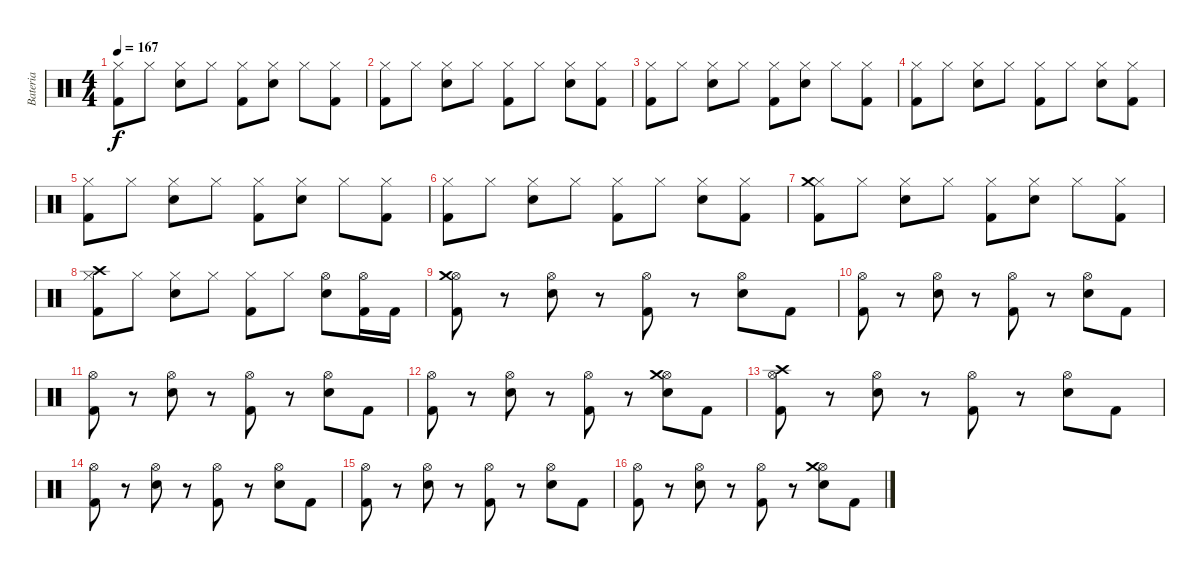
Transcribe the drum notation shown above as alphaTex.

\track ("Bateria" "Bateria") {instrument percussion}
\staff {score}
\articulation defaults
\ts (4 4)
\tempo 167
\clef neutral
\ks c
("Kick (hit) 2" "Hi-Hat (closed)").8{dy f} "Hi-Hat (closed)".8 ("Snare (hit) 2" "Hi-Hat (closed)").8 "Hi-Hat (closed)".8 ("Kick (hit) 2" "Hi-Hat (closed)").8 ("Snare (hit) 2" "Hi-Hat (closed)").8 "Hi-Hat (closed)".8 ("Kick (hit) 2" "Hi-Hat (closed)").8 |
("Kick (hit) 2" "Hi-Hat (closed)").8 "Hi-Hat (closed)".8 ("Snare (hit) 2" "Hi-Hat (closed)").8 "Hi-Hat (closed)".8 ("Kick (hit) 2" "Hi-Hat (closed)").8 "Hi-Hat (closed)".8 ("Snare (hit) 2" "Hi-Hat (closed)").8 ("Kick (hit) 2" "Hi-Hat (closed)").8 |
("Kick (hit) 2" "Hi-Hat (closed)").8 "Hi-Hat (closed)".8 ("Snare (hit) 2" "Hi-Hat (closed)").8 "Hi-Hat (closed)".8 ("Kick (hit) 2" "Hi-Hat (closed)").8 ("Snare (hit) 2" "Hi-Hat (closed)").8 "Hi-Hat (closed)".8 ("Kick (hit) 2" "Hi-Hat (closed)").8 |
("Kick (hit) 2" "Hi-Hat (closed)").8 "Hi-Hat (closed)".8 ("Snare (hit) 2" "Hi-Hat (closed)").8 "Hi-Hat (closed)".8 ("Kick (hit) 2" "Hi-Hat (closed)").8 "Hi-Hat (closed)".8 ("Snare (hit) 2" "Hi-Hat (closed)").8 ("Kick (hit) 2" "Hi-Hat (closed)").8 |
("Kick (hit) 2" "Hi-Hat (closed)").8 "Hi-Hat (closed)".8 ("Snare (hit) 2" "Hi-Hat (closed)").8 "Hi-Hat (closed)".8 ("Kick (hit) 2" "Hi-Hat (closed)").8 ("Snare (hit) 2" "Hi-Hat (closed)").8 "Hi-Hat (closed)".8 ("Kick (hit) 2" "Hi-Hat (closed)").8 |
("Kick (hit) 2" "Hi-Hat (closed)").8 "Hi-Hat (closed)".8 ("Snare (hit) 2" "Hi-Hat (closed)").8 "Hi-Hat (closed)".8 ("Kick (hit) 2" "Hi-Hat (closed)").8 "Hi-Hat (closed)".8 ("Snare (hit) 2" "Hi-Hat (closed)").8 ("Kick (hit) 2" "Hi-Hat (closed)").8 |
("Kick (hit) 2" "Hi-Hat (closed)" "Crash medium (hit)").8 "Hi-Hat (closed)".8 ("Snare (hit) 2" "Hi-Hat (closed)").8 "Hi-Hat (closed)".8 ("Kick (hit) 2" "Hi-Hat (closed)").8 ("Snare (hit) 2" "Hi-Hat (closed)").8 "Hi-Hat (closed)".8 ("Kick (hit) 2" "Hi-Hat (closed)").8 |
("Kick (hit) 2" "Hi-Hat (closed)" "Crash high (hit)").8 "Hi-Hat (closed)".8 ("Snare (hit) 2" "Hi-Hat (closed)").8 "Hi-Hat (closed)".8 ("Kick (hit) 2" "Hi-Hat (closed)").8 "Hi-Hat (closed)".8 ("Snare (hit) 2" "Hi-Hat (open)").8 ("Kick (hit) 2" "Hi-Hat (open)").16 "Kick (hit) 2".16 |
("Kick (hit) 2" "Hi-Hat (open)" "Crash medium (hit)").8 r.8 ("Snare (hit) 2" "Hi-Hat (open)").8 r.8 ("Kick (hit) 2" "Hi-Hat (open)").8 r.8 ("Snare (hit) 2" "Hi-Hat (open)").8 "Kick (hit) 2".8 |
("Kick (hit) 2" "Hi-Hat (open)").8 r.8 ("Snare (hit) 2" "Hi-Hat (open)").8 r.8 ("Kick (hit) 2" "Hi-Hat (open)").8 r.8 ("Snare (hit) 2" "Hi-Hat (open)").8 "Kick (hit) 2".8 |
("Kick (hit) 2" "Hi-Hat (open)").8 r.8 ("Snare (hit) 2" "Hi-Hat (open)").8 r.8 ("Kick (hit) 2" "Hi-Hat (open)").8 r.8 ("Snare (hit) 2" "Hi-Hat (open)").8 "Kick (hit) 2".8 |
("Kick (hit) 2" "Hi-Hat (open)").8 r.8 ("Snare (hit) 2" "Hi-Hat (open)").8 r.8 ("Kick (hit) 2" "Hi-Hat (open)").8 r.8 ("Snare (hit) 2" "Hi-Hat (open)" "Crash medium (hit)").8 "Kick (hit) 2".8 |
("Kick (hit) 2" "Hi-Hat (open)" "Crash high (hit)").8 r.8 ("Snare (hit) 2" "Hi-Hat (open)").8 r.8 ("Kick (hit) 2" "Hi-Hat (open)").8 r.8 ("Snare (hit) 2" "Hi-Hat (open)").8 "Kick (hit) 2".8 |
("Kick (hit) 2" "Hi-Hat (open)").8 r.8 ("Snare (hit) 2" "Hi-Hat (open)").8 r.8 ("Kick (hit) 2" "Hi-Hat (open)").8 r.8 ("Snare (hit) 2" "Hi-Hat (open)").8 "Kick (hit) 2".8 |
("Kick (hit) 2" "Hi-Hat (open)").8 r.8 ("Snare (hit) 2" "Hi-Hat (open)").8 r.8 ("Kick (hit) 2" "Hi-Hat (open)").8 r.8 ("Snare (hit) 2" "Hi-Hat (open)").8 "Kick (hit) 2".8 |
("Kick (hit) 2" "Hi-Hat (open)").8 r.8 ("Snare (hit) 2" "Hi-Hat (open)").8 r.8 ("Kick (hit) 2" "Hi-Hat (open)").8 r.8 ("Snare (hit) 2" "Hi-Hat (open)" "Crash medium (hit)").8 "Kick (hit) 2".8
